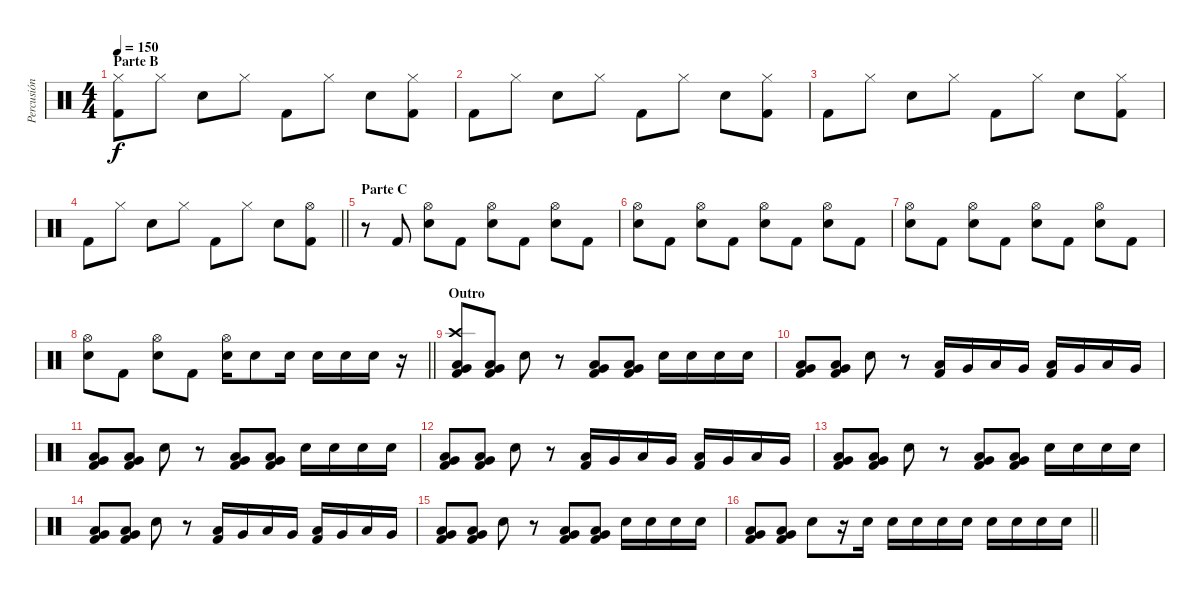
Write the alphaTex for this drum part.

\track ("Percusión" "Percusión") {instrument percussion}
\staff {score}
\articulation defaults
\ts (4 4)
\section ("" "Parte B")
\tempo 150
\clef neutral
\ks c
("Hi-Hat (closed)" "Kick (hit) 2").8{dy f} "Hi-Hat (closed)".8 "Electric Snare (hit)".8 "Hi-Hat (closed)".8 "Kick (hit) 2".8 "Hi-Hat (closed)".8 "Electric Snare (hit)".8 ("Hi-Hat (closed)" "Kick (hit) 2").8 |
"Kick (hit) 2".8 "Hi-Hat (closed)".8 "Electric Snare (hit)".8 "Hi-Hat (closed)".8 "Kick (hit) 2".8 "Hi-Hat (closed)".8 "Electric Snare (hit)".8 ("Hi-Hat (closed)" "Kick (hit) 2").8 |
"Kick (hit) 2".8 "Hi-Hat (closed)".8 "Electric Snare (hit)".8 "Hi-Hat (closed)".8 "Kick (hit) 2".8 "Hi-Hat (closed)".8 "Electric Snare (hit)".8 ("Hi-Hat (closed)" "Kick (hit) 2").8 |
\barLineRight lightlight "Kick (hit) 2".8 "Hi-Hat (closed)".8 "Electric Snare (hit)".8 "Hi-Hat (closed)".8 "Kick (hit) 2".8 "Hi-Hat (closed)".8 "Electric Snare (hit)".8
("Hi-Hat (open)" "Kick (hit) 2").8 |
\section ("" "Parte C")
r.8 "Kick (hit) 2".8 ("Hi-Hat (open)" "Electric Snare (hit)").8 "Kick (hit) 2".8 ("Hi-Hat (open)" "Electric Snare (hit)").8 "Kick (hit) 2".8 ("Hi-Hat (open)" "Electric Snare (hit)").8 "Kick (hit) 2".8 |
("Hi-Hat (open)" "Electric Snare (hit)").8 "Kick (hit) 2".8 ("Hi-Hat (open)" "Electric Snare (hit)").8 "Kick (hit) 2".8 ("Hi-Hat (open)" "Electric Snare (hit)").8 "Kick (hit) 2".8 ("Hi-Hat (open)" "Electric Snare (hit)").8 "Kick (hit) 2".8 |
("Hi-Hat (open)" "Electric Snare (hit)").8 "Kick (hit) 2".8 ("Hi-Hat (open)" "Electric Snare (hit)").8 "Kick (hit) 2".8 ("Hi-Hat (open)" "Electric Snare (hit)").8 "Kick (hit) 2".8 ("Hi-Hat (open)" "Electric Snare (hit)").8 "Kick (hit) 2".8 |
\barLineRight lightlight
("Hi-Hat (open)" "Electric Snare (hit)").8 "Kick (hit) 2".8 ("Hi-Hat (open)" "Electric Snare (hit)").8 "Kick (hit) 2".8 ("Hi-Hat (open)" "Electric Snare (hit)").16 "Electric Snare (hit)".8 "Electric Snare (hit)".16 "Electric Snare (hit)".16 "Electric Snare (hit)".16 "Electric Snare (hit)".16 r.16 |
\section ("" "Outro")
("Crash high (hit)" "Kick (hit) 2" "Low Floor Tom (hit)" "Very Low Tom (hit)").8 ("Kick (hit) 2" "Low Floor Tom (hit)" "Very Low Tom (hit)").8 "Electric Snare (hit)".8 r.8 ("Kick (hit) 2" "Low Floor Tom (hit)" "Very Low Tom (hit)").8 ("Kick (hit) 2" "Low Floor Tom (hit)" "Very Low Tom (hit)").8 "Electric Snare (hit)".16 "Electric Snare (hit)".16 "Electric Snare (hit)".16 "Electric Snare (hit)".16 |
("Kick (hit) 2" "Low Floor Tom (hit)" "Very Low Tom (hit)").8 ("Kick (hit) 2" "Low Floor Tom (hit)" "Very Low Tom (hit)").8 "Electric Snare (hit)".8 r.8 ("Low Floor Tom (hit)" "Kick (hit) 2").16 "Very Low Tom (hit)".16 "Low Floor Tom (hit)".16 "Very Low Tom (hit)".16 ("Low Floor Tom (hit)" "Kick (hit) 2").16 "Very Low Tom (hit)".16 "Low Floor Tom (hit)".16 "Very Low Tom (hit)".16 |
("Kick (hit) 2" "Low Floor Tom (hit)" "Very Low Tom (hit)").8 ("Kick (hit) 2" "Low Floor Tom (hit)" "Very Low Tom (hit)").8 "Electric Snare (hit)".8 r.8 ("Kick (hit) 2" "Low Floor Tom (hit)" "Very Low Tom (hit)").8 ("Kick (hit) 2" "Low Floor Tom (hit)" "Very Low Tom (hit)").8 "Electric Snare (hit)".16 "Electric Snare (hit)".16 "Electric Snare (hit)".16 "Electric Snare (hit)".16 |
("Kick (hit) 2" "Low Floor Tom (hit)" "Very Low Tom (hit)").8 ("Kick (hit) 2" "Low Floor Tom (hit)" "Very Low Tom (hit)").8 "Electric Snare (hit)".8 r.8 ("Low Floor Tom (hit)" "Kick (hit) 2").16 "Very Low Tom (hit)".16 "Low Floor Tom (hit)".16 "Very Low Tom (hit)".16 ("Low Floor Tom (hit)" "Kick (hit) 2").16 "Very Low Tom (hit)".16 "Low Floor Tom (hit)".16 "Very Low Tom (hit)".16 |
("Kick (hit) 2" "Low Floor Tom (hit)" "Very Low Tom (hit)").8 ("Kick (hit) 2" "Low Floor Tom (hit)" "Very Low Tom (hit)").8 "Electric Snare (hit)".8 r.8 ("Kick (hit) 2" "Low Floor Tom (hit)" "Very Low Tom (hit)").8 ("Kick (hit) 2" "Low Floor Tom (hit)" "Very Low Tom (hit)").8 "Electric Snare (hit)".16 "Electric Snare (hit)".16 "Electric Snare (hit)".16 "Electric Snare (hit)".16 |
("Kick (hit) 2" "Low Floor Tom (hit)" "Very Low Tom (hit)").8 ("Kick (hit) 2" "Low Floor Tom (hit)" "Very Low Tom (hit)").8 "Electric Snare (hit)".8 r.8 ("Low Floor Tom (hit)" "Kick (hit) 2").16 "Very Low Tom (hit)".16 "Low Floor Tom (hit)".16 "Very Low Tom (hit)".16 ("Low Floor Tom (hit)" "Kick (hit) 2").16 "Very Low Tom (hit)".16 "Low Floor Tom (hit)".16 "Very Low Tom (hit)".16 |
("Kick (hit) 2" "Low Floor Tom (hit)" "Very Low Tom (hit)").8 ("Kick (hit) 2" "Low Floor Tom (hit)" "Very Low Tom (hit)").8 "Electric Snare (hit)".8 r.8 ("Kick (hit) 2" "Low Floor Tom (hit)" "Very Low Tom (hit)").8 ("Kick (hit) 2" "Low Floor Tom (hit)" "Very Low Tom (hit)").8 "Electric Snare (hit)".16 "Electric Snare (hit)".16 "Electric Snare (hit)".16 "Electric Snare (hit)".16 |
\barLineRight lightlight
("Kick (hit) 2" "Low Floor Tom (hit)" "Very Low Tom (hit)").8 ("Kick (hit) 2" "Low Floor Tom (hit)" "Very Low Tom (hit)").8 "Electric Snare (hit)".8 r.16 "Electric Snare (hit)".16 "Electric Snare (hit)".16 "Electric Snare (hit)".16 "Electric Snare (hit)".16 "Electric Snare (hit)".16 "Electric Snare (hit)".16 "Electric Snare (hit)".16 "Electric Snare (hit)".16 "Electric Snare (hit)".16
